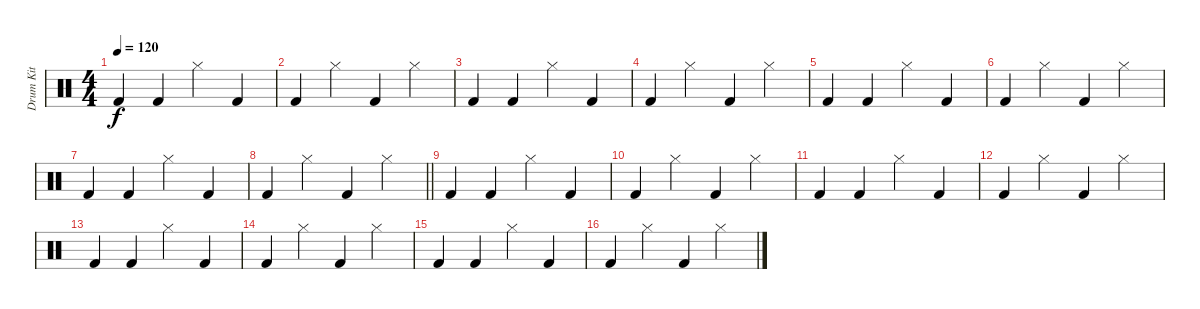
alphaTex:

\track ("Drum Kit" "Drum Kit") {instrument percussion}
\staff {score}
\articulation defaults
\ts (4 4)
\tempo 120
\clef neutral
\ks c "Kick (hit) 2".4{dy f} "Kick (hit) 2".4 "Hi-Hat (closed)".4 "Kick (hit) 2".4
|
"Kick (hit) 2".4 "Hi-Hat (closed)".4 "Kick (hit) 2".4 "Hi-Hat (closed)".4 |
"Kick (hit) 2".4 "Kick (hit) 2".4 "Hi-Hat (closed)".4 "Kick (hit) 2".4 |
"Kick (hit) 2".4 "Hi-Hat (closed)".4 "Kick (hit) 2".4 "Hi-Hat (closed)".4 |
"Kick (hit) 2".4 "Kick (hit) 2".4 "Hi-Hat (closed)".4 "Kick (hit) 2".4 |
"Kick (hit) 2".4 "Hi-Hat (closed)".4 "Kick (hit) 2".4 "Hi-Hat (closed)".4 |
"Kick (hit) 2".4 "Kick (hit) 2".4 "Hi-Hat (closed)".4 "Kick (hit) 2".4 |
\barLineRight lightlight "Kick (hit) 2".4 "Hi-Hat (closed)".4 "Kick (hit) 2".4 "Hi-Hat (closed)".4
|
"Kick (hit) 2".4 "Kick (hit) 2".4 "Hi-Hat (closed)".4 "Kick (hit) 2".4 |
"Kick (hit) 2".4 "Hi-Hat (closed)".4 "Kick (hit) 2".4 "Hi-Hat (closed)".4 |
"Kick (hit) 2".4 "Kick (hit) 2".4 "Hi-Hat (closed)".4 "Kick (hit) 2".4 |
"Kick (hit) 2".4 "Hi-Hat (closed)".4 "Kick (hit) 2".4 "Hi-Hat (closed)".4 |
"Kick (hit) 2".4 "Kick (hit) 2".4 "Hi-Hat (closed)".4 "Kick (hit) 2".4 |
"Kick (hit) 2".4 "Hi-Hat (closed)".4 "Kick (hit) 2".4 "Hi-Hat (closed)".4 |
"Kick (hit) 2".4 "Kick (hit) 2".4 "Hi-Hat (closed)".4 "Kick (hit) 2".4 |
"Kick (hit) 2".4 "Hi-Hat (closed)".4 "Kick (hit) 2".4 "Hi-Hat (closed)".4
